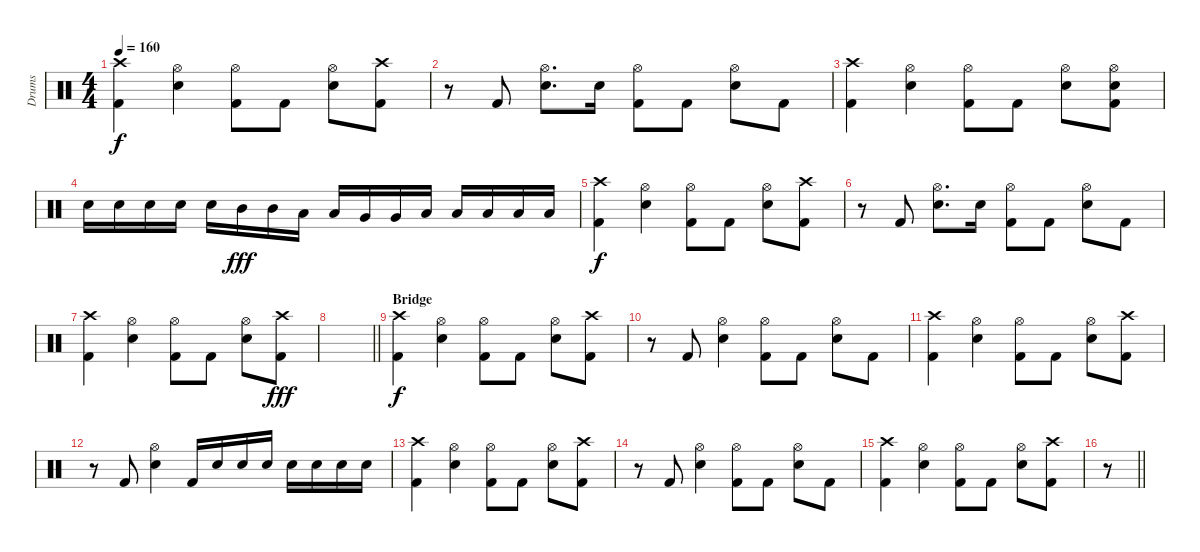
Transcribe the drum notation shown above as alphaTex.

\track ("Drums" "Drums") {instrument percussion}
\staff {score}
\articulation defaults
\ts (4 4)
\tempo 160
\clef neutral
\ks c
("Crash high (hit)" "Kick (hit) 2").4{dy f} ("Hi-Hat (open)" "Electric Snare (hit)").4 ("Hi-Hat (open)" "Kick (hit) 2").8 "Kick (hit) 2".8 ("Hi-Hat (open)" "Electric Snare (hit)").8 ("Crash high (hit)" "Kick (hit) 2").8 |
r.8 "Kick (hit) 2".8 ("Hi-Hat (open)" "Electric Snare (hit)").8{d} "Electric Snare (hit)".16 ("Hi-Hat (open)" "Kick (hit) 2").8 "Kick (hit) 2".8 ("Hi-Hat (open)" "Electric Snare (hit)").8 "Kick (hit) 2".8 |
("Crash high (hit)" "Kick (hit) 2").4 ("Hi-Hat (open)" "Electric Snare (hit)").4 ("Hi-Hat (open)" "Kick (hit) 2").8 "Kick (hit) 2".8 ("Hi-Hat (open)" "Electric Snare (hit)").8 ("Hi-Hat (open)" "Electric Snare (hit)" "Kick (hit) 2").8 |
"Electric Snare (hit)".16 "Electric Snare (hit)".16 "Electric Snare (hit)".16 "Electric Snare (hit)".16 "Electric Snare (hit)".16 "Mid Tom (hit)".16{dy fff} "Mid Tom (hit)".16 "Low Tom (hit)".16 "Low Tom (hit)".16 "Very Low Tom (hit)".16 "Very Low Tom (hit)".16 "Low Floor Tom (hit)".16 "Low Floor Tom (hit)".16 "Low Floor Tom (hit)".16 "Low Floor Tom (hit)".16 "Low Floor Tom (hit)".16 |
("Crash high (hit)" "Kick (hit) 2").4{dy f} ("Hi-Hat (open)" "Electric Snare (hit)").4 ("Hi-Hat (open)" "Kick (hit) 2").8 "Kick (hit) 2".8 ("Hi-Hat (open)" "Electric Snare (hit)").8 ("Crash high (hit)" "Kick (hit) 2").8 |
r.8 "Kick (hit) 2".8 ("Hi-Hat (open)" "Electric Snare (hit)").8{d} "Electric Snare (hit)".16 ("Hi-Hat (open)" "Kick (hit) 2").8 "Kick (hit) 2".8 ("Hi-Hat (open)" "Electric Snare (hit)").8 "Kick (hit) 2".8 |
("Crash high (hit)" "Kick (hit) 2").4 ("Hi-Hat (open)" "Electric Snare (hit)").4 ("Hi-Hat (open)" "Kick (hit) 2").8 "Kick (hit) 2".8 ("Hi-Hat (open)" "Electric Snare (hit)").8 ("Crash high (hit)" "Kick (hit) 2").8{dy fff} |
\barLineRight lightlight
|
\section ("" "Bridge")
("Crash high (hit)" "Kick (hit) 2").4{dy f} ("Hi-Hat (open)" "Electric Snare (hit)").4 ("Hi-Hat (open)" "Kick (hit) 2").8 "Kick (hit) 2".8 ("Hi-Hat (open)" "Electric Snare (hit)").8 ("Crash high (hit)" "Kick (hit) 2").8 |
r.8 "Kick (hit) 2".8 ("Hi-Hat (open)" "Electric Snare (hit)").4 ("Hi-Hat (open)" "Kick (hit) 2").8 "Kick (hit) 2".8 ("Hi-Hat (open)" "Electric Snare (hit)").8 "Kick (hit) 2".8 |
("Crash high (hit)" "Kick (hit) 2").4 ("Hi-Hat (open)" "Electric Snare (hit)").4 ("Hi-Hat (open)" "Kick (hit) 2").8 "Kick (hit) 2".8 ("Hi-Hat (open)" "Electric Snare (hit)").8 ("Crash high (hit)" "Kick (hit) 2").8 |
r.8 "Kick (hit) 2".8 ("Hi-Hat (open)" "Electric Snare (hit)").4 "Kick (hit) 2".16 "Electric Snare (hit)".16 "Electric Snare (hit)".16 "Electric Snare (hit)".16 "Electric Snare (hit)".16 "Electric Snare (hit)".16 "Electric Snare (hit)".16 "Electric Snare (hit)".16 |
("Crash high (hit)" "Kick (hit) 2").4 ("Hi-Hat (open)" "Electric Snare (hit)").4 ("Hi-Hat (open)" "Kick (hit) 2").8 "Kick (hit) 2".8 ("Hi-Hat (open)" "Electric Snare (hit)").8 ("Crash high (hit)" "Kick (hit) 2").8 |
r.8 "Kick (hit) 2".8 ("Hi-Hat (open)" "Electric Snare (hit)").4 ("Hi-Hat (open)" "Kick (hit) 2").8 "Kick (hit) 2".8 ("Hi-Hat (open)" "Electric Snare (hit)").8 "Kick (hit) 2".8 |
("Crash high (hit)" "Kick (hit) 2").4 ("Hi-Hat (open)" "Electric Snare (hit)").4 ("Hi-Hat (open)" "Kick (hit) 2").8 "Kick (hit) 2".8 ("Hi-Hat (open)" "Electric Snare (hit)").8 ("Crash high (hit)" "Kick (hit) 2").8 |
\barLineRight lightlight
r.8
